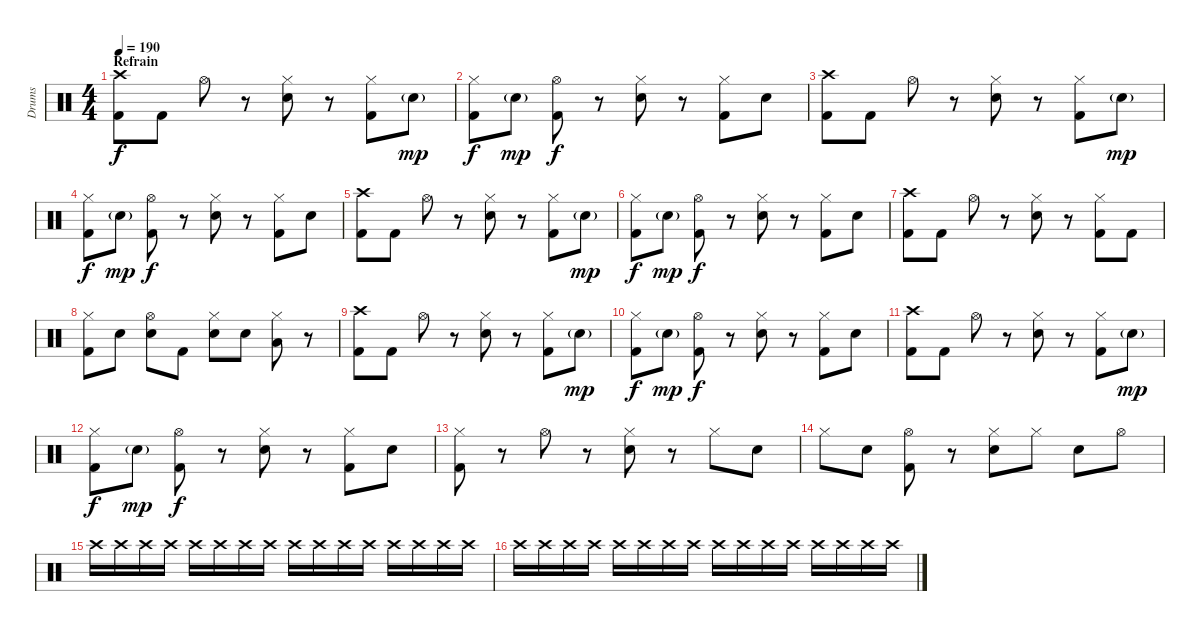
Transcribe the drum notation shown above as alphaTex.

\track ("Drums" "Drums") {instrument percussion}
\staff {score}
\articulation defaults
\ts (4 4)
\section ("" "Refrain")
\tempo 190
\clef neutral
\ks c
("Crash high (hit)" "Kick (hit) 2").8{dy f} "Kick (hit) 2".8 "Hi-Hat (open)".8 r.8 ("Hi-Hat (closed)" "Electric Snare (hit)").8 r.8 ("Hi-Hat (closed)" "Kick (hit) 2").8 "Electric Snare (hit)"{g}.8{dy mp} |
("Hi-Hat (closed)" "Kick (hit) 2").8{dy f} "Electric Snare (hit)"{g}.8{dy mp} ("Hi-Hat (open)" "Kick (hit) 2").8{dy f} r.8 ("Hi-Hat (closed)" "Electric Snare (hit)").8 r.8 ("Hi-Hat (closed)" "Kick (hit) 2").8 "Electric Snare (hit)".8 |
("Crash high (hit)" "Kick (hit) 2").8 "Kick (hit) 2".8 "Hi-Hat (open)".8 r.8 ("Hi-Hat (closed)" "Electric Snare (hit)").8 r.8 ("Hi-Hat (closed)" "Kick (hit) 2").8 "Electric Snare (hit)"{g}.8{dy mp} |
("Hi-Hat (closed)" "Kick (hit) 2").8{dy f} "Electric Snare (hit)"{g}.8{dy mp} ("Hi-Hat (open)" "Kick (hit) 2").8{dy f} r.8 ("Hi-Hat (closed)" "Electric Snare (hit)").8 r.8 ("Hi-Hat (closed)" "Kick (hit) 2").8 "Electric Snare (hit)".8 |
("Crash high (hit)" "Kick (hit) 2").8 "Kick (hit) 2".8 "Hi-Hat (open)".8 r.8 ("Hi-Hat (closed)" "Electric Snare (hit)").8 r.8 ("Hi-Hat (closed)" "Kick (hit) 2").8 "Electric Snare (hit)"{g}.8{dy mp} |
("Hi-Hat (closed)" "Kick (hit) 2").8{dy f} "Electric Snare (hit)"{g}.8{dy mp} ("Hi-Hat (open)" "Kick (hit) 2").8{dy f} r.8 ("Hi-Hat (closed)" "Electric Snare (hit)").8 r.8 ("Hi-Hat (closed)" "Kick (hit) 2").8 "Electric Snare (hit)".8 |
("Crash high (hit)" "Kick (hit) 2").8 "Kick (hit) 2".8 "Hi-Hat (open)".8 r.8 ("Hi-Hat (closed)" "Electric Snare (hit)").8 r.8 ("Hi-Hat (closed)" "Kick (hit) 2").8 "Kick (hit) 2".8 |
("Hi-Hat (closed)" "Kick (hit) 2").8 "Electric Snare (hit)".8 ("Hi-Hat (open)" "Electric Snare (hit)").8 "Kick (hit) 2".8 ("Hi-Hat (closed)" "Electric Snare (hit)").8 "Electric Snare (hit)".8 ("Hi-Hat (closed)" "Low Floor Tom (hit)").8 r.8 |
("Crash high (hit)" "Kick (hit) 2").8 "Kick (hit) 2".8 "Hi-Hat (open)".8 r.8 ("Hi-Hat (closed)" "Electric Snare (hit)").8 r.8 ("Hi-Hat (closed)" "Kick (hit) 2").8 "Electric Snare (hit)"{g}.8{dy mp} |
("Hi-Hat (closed)" "Kick (hit) 2").8{dy f} "Electric Snare (hit)"{g}.8{dy mp} ("Hi-Hat (open)" "Kick (hit) 2").8{dy f} r.8 ("Hi-Hat (closed)" "Electric Snare (hit)").8 r.8 ("Hi-Hat (closed)" "Kick (hit) 2").8 "Electric Snare (hit)".8 |
("Crash high (hit)" "Kick (hit) 2").8 "Kick (hit) 2".8 "Hi-Hat (open)".8 r.8 ("Hi-Hat (closed)" "Electric Snare (hit)").8 r.8 ("Hi-Hat (closed)" "Kick (hit) 2").8 "Electric Snare (hit)"{g}.8{dy mp} |
("Hi-Hat (closed)" "Kick (hit) 2").8{dy f} "Electric Snare (hit)"{g}.8{dy mp} ("Hi-Hat (open)" "Kick (hit) 2").8{dy f} r.8 ("Hi-Hat (closed)" "Electric Snare (hit)").8 r.8 ("Hi-Hat (closed)" "Kick (hit) 2").8 "Electric Snare (hit)".8 |
("Hi-Hat (closed)" "Kick (hit) 2").8 r.8 "Hi-Hat (open)".8 r.8 ("Hi-Hat (closed)" "Electric Snare (hit)").8 r.8 "Hi-Hat (closed)".8 "Electric Snare (hit)".8 |
"Hi-Hat (closed)".8 "Electric Snare (hit)".8 ("Hi-Hat (open)" "Kick (hit) 2").8 r.8 ("Hi-Hat (closed)" "Electric Snare (hit)").8 "Hi-Hat (closed)".8 "Electric Snare (hit)".8 "Hi-Hat (open)".8 |
"Crash high (hit)".16{volume 0} "Crash high (hit)".16{volume 16} "Crash high (hit)".16 "Crash high (hit)".16 "Crash high (hit)".16 "Crash high (hit)".16 "Crash high (hit)".16 "Crash high (hit)".16 "Crash high (hit)".16 "Crash high (hit)".16 "Crash high (hit)".16 "Crash high (hit)".16 "Crash high (hit)".16 "Crash high (hit)".16 "Crash high (hit)".16 "Crash high (hit)".16 |
"Crash high (hit)".16 "Crash high (hit)".16 "Crash high (hit)".16 "Crash high (hit)".16 "Crash high (hit)".16 "Crash high (hit)".16 "Crash high (hit)".16 "Crash high (hit)".16 "Crash high (hit)".16 "Crash high (hit)".16 "Crash high (hit)".16 "Crash high (hit)".16 "Crash high (hit)".16 "Crash high (hit)".16 "Crash high (hit)".16 "Crash high (hit)".16
